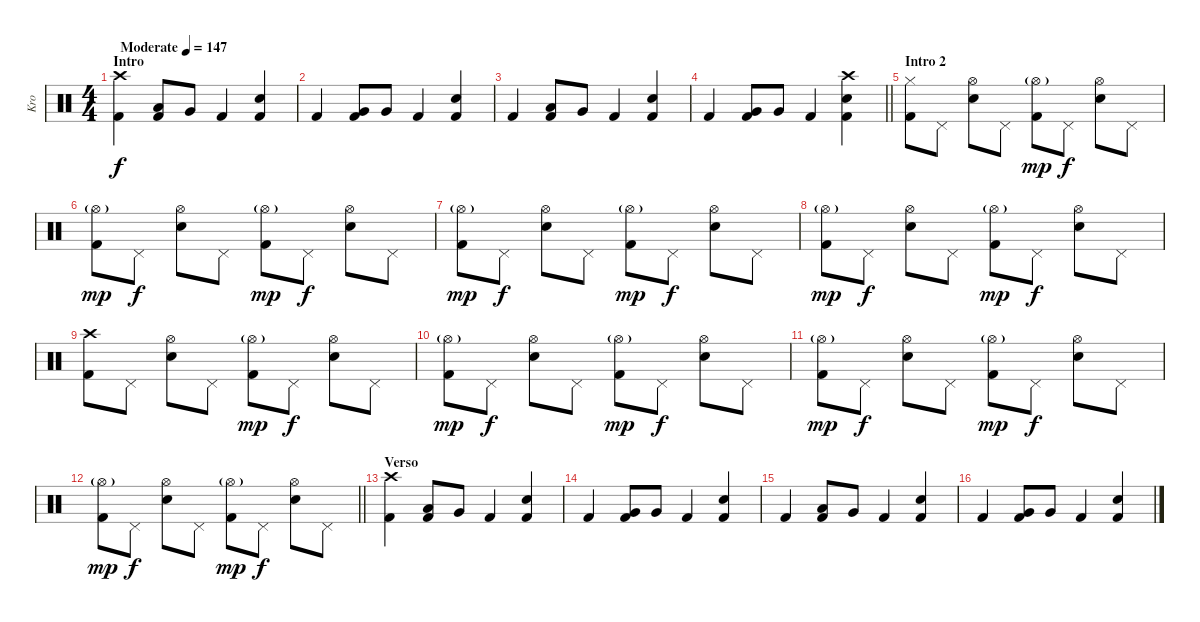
\track ("Kro" "Kro") {instrument percussion}
\staff {score}
\articulation defaults
\ts (4 4)
\section ("" "Intro")
\tempo (147 "Moderate")
\clef neutral
\ks c
("Crash high (hit)" "Kick (hit) 2").4{dy f} ("Low Tom (hit)" "Kick (hit) 2").8 "Very Low Tom (hit)".8 "Kick (hit) 2".4 ("Electric Snare (hit)" "Kick (hit) 2").4 |
"Kick (hit) 2".4 ("Very Low Tom (hit)" "Kick (hit) 2").8 "Very Low Tom (hit)".8 "Kick (hit) 2".4 ("Electric Snare (hit)" "Kick (hit) 2").4 |
"Kick (hit) 2".4 ("Low Tom (hit)" "Kick (hit) 2").8 "Very Low Tom (hit)".8 "Kick (hit) 2".4 ("Electric Snare (hit)" "Kick (hit) 2").4 |
\barLineRight lightlight "Kick (hit) 2".4
("Very Low Tom (hit)" "Kick (hit) 2").8 "Very Low Tom (hit)".8 "Kick (hit) 2".4 ("Crash high (hit)" "Electric Snare (hit)" "Kick (hit) 2").4 |
\section ("" "Intro 2")
("Hi-Hat (closed)" "Kick (hit) 2").8 "Pedal Hi-Hat (hit)".8 ("Hi-Hat (open)" "Electric Snare (hit)").8 "Pedal Hi-Hat (hit)".8 ("Hi-Hat (open)"{g} "Kick (hit) 2").8{dy mp} "Pedal Hi-Hat (hit)".8{dy f} ("Hi-Hat (open)" "Electric Snare (hit)").8 "Pedal Hi-Hat (hit)".8 |
("Hi-Hat (open)"{g} "Kick (hit) 2").8{dy mp} "Pedal Hi-Hat (hit)".8{dy f} ("Hi-Hat (open)" "Electric Snare (hit)").8 "Pedal Hi-Hat (hit)".8 ("Hi-Hat (open)"{g} "Kick (hit) 2").8{dy mp} "Pedal Hi-Hat (hit)".8{dy f} ("Hi-Hat (open)" "Electric Snare (hit)").8 "Pedal Hi-Hat (hit)".8 |
("Hi-Hat (open)"{g} "Kick (hit) 2").8{dy mp} "Pedal Hi-Hat (hit)".8{dy f} ("Hi-Hat (open)" "Electric Snare (hit)").8 "Pedal Hi-Hat (hit)".8 ("Hi-Hat (open)"{g} "Kick (hit) 2").8{dy mp} "Pedal Hi-Hat (hit)".8{dy f} ("Hi-Hat (open)" "Electric Snare (hit)").8 "Pedal Hi-Hat (hit)".8 |
("Hi-Hat (open)"{g} "Kick (hit) 2").8{dy mp} "Pedal Hi-Hat (hit)".8{dy f} ("Hi-Hat (open)" "Electric Snare (hit)").8 "Pedal Hi-Hat (hit)".8 ("Hi-Hat (open)"{g} "Kick (hit) 2").8{dy mp} "Pedal Hi-Hat (hit)".8{dy f} ("Hi-Hat (open)" "Electric Snare (hit)").8 "Pedal Hi-Hat (hit)".8 |
("Crash high (hit)" "Kick (hit) 2").8 "Pedal Hi-Hat (hit)".8 ("Hi-Hat (open)" "Electric Snare (hit)").8 "Pedal Hi-Hat (hit)".8 ("Hi-Hat (open)"{g} "Kick (hit) 2").8{dy mp} "Pedal Hi-Hat (hit)".8{dy f} ("Hi-Hat (open)" "Electric Snare (hit)").8 "Pedal Hi-Hat (hit)".8 |
("Hi-Hat (open)"{g} "Kick (hit) 2").8{dy mp} "Pedal Hi-Hat (hit)".8{dy f} ("Hi-Hat (open)" "Electric Snare (hit)").8 "Pedal Hi-Hat (hit)".8 ("Hi-Hat (open)"{g} "Kick (hit) 2").8{dy mp} "Pedal Hi-Hat (hit)".8{dy f} ("Hi-Hat (open)" "Electric Snare (hit)").8 "Pedal Hi-Hat (hit)".8 |
("Hi-Hat (open)"{g} "Kick (hit) 2").8{dy mp} "Pedal Hi-Hat (hit)".8{dy f} ("Hi-Hat (open)" "Electric Snare (hit)").8 "Pedal Hi-Hat (hit)".8 ("Hi-Hat (open)"{g} "Kick (hit) 2").8{dy mp} "Pedal Hi-Hat (hit)".8{dy f} ("Hi-Hat (open)" "Electric Snare (hit)").8 "Pedal Hi-Hat (hit)".8 |
\barLineRight lightlight
("Hi-Hat (open)"{g} "Kick (hit) 2").8{dy mp} "Pedal Hi-Hat (hit)".8{dy f} ("Hi-Hat (open)" "Electric Snare (hit)").8 "Pedal Hi-Hat (hit)".8 ("Hi-Hat (open)"{g} "Kick (hit) 2").8{dy mp} "Pedal Hi-Hat (hit)".8{dy f} ("Hi-Hat (open)" "Electric Snare (hit)").8 "Pedal Hi-Hat (hit)".8 |
\section ("" "Verso")
("Crash high (hit)" "Kick (hit) 2").4 ("Low Tom (hit)" "Kick (hit) 2").8 "Very Low Tom (hit)".8 "Kick (hit) 2".4 ("Electric Snare (hit)" "Kick (hit) 2").4 |
"Kick (hit) 2".4 ("Very Low Tom (hit)" "Kick (hit) 2").8 "Very Low Tom (hit)".8 "Kick (hit) 2".4 ("Electric Snare (hit)" "Kick (hit) 2").4 |
"Kick (hit) 2".4 ("Low Tom (hit)" "Kick (hit) 2").8 "Very Low Tom (hit)".8 "Kick (hit) 2".4 ("Electric Snare (hit)" "Kick (hit) 2").4 |
"Kick (hit) 2".4 ("Very Low Tom (hit)" "Kick (hit) 2").8 "Very Low Tom (hit)".8 "Kick (hit) 2".4 ("Electric Snare (hit)" "Kick (hit) 2").4
